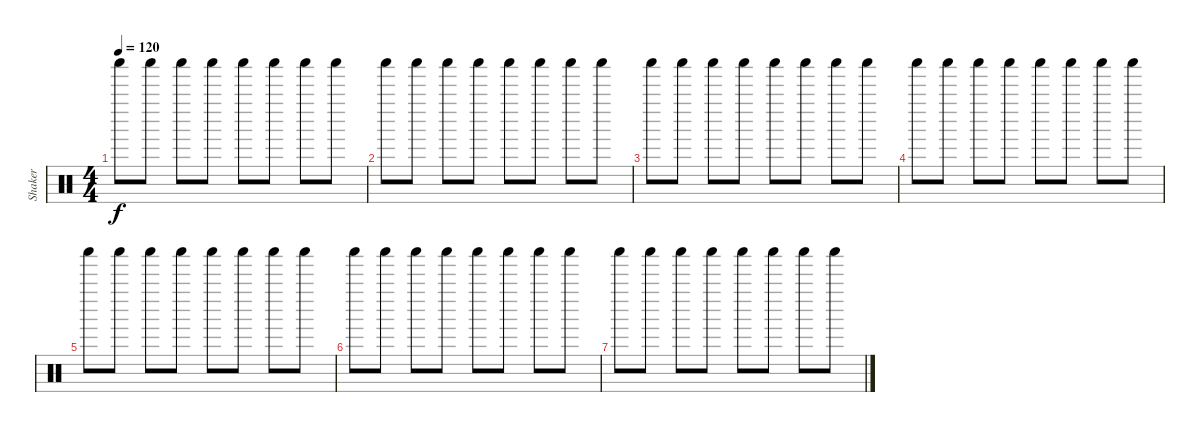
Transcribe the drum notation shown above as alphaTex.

\track ("Shaker" "Shaker") {instrument percussion}
\staff {score}
\articulation defaults
\ts (4 4)
\tempo 120
\clef neutral
\ks c "Shaker (hit)".8{dy f} "Shaker (hit)".8 "Shaker (hit)".8 "Shaker (hit)".8 "Shaker (hit)".8 "Shaker (hit)".8 "Shaker (hit)".8 "Shaker (hit)".8
|
"Shaker (hit)".8 "Shaker (hit)".8 "Shaker (hit)".8 "Shaker (hit)".8 "Shaker (hit)".8 "Shaker (hit)".8 "Shaker (hit)".8 "Shaker (hit)".8 |
"Shaker (hit)".8 "Shaker (hit)".8 "Shaker (hit)".8 "Shaker (hit)".8 "Shaker (hit)".8 "Shaker (hit)".8 "Shaker (hit)".8 "Shaker (hit)".8 |
"Shaker (hit)".8 "Shaker (hit)".8 "Shaker (hit)".8 "Shaker (hit)".8 "Shaker (hit)".8 "Shaker (hit)".8 "Shaker (hit)".8 "Shaker (hit)".8 |
"Shaker (hit)".8 "Shaker (hit)".8 "Shaker (hit)".8 "Shaker (hit)".8 "Shaker (hit)".8 "Shaker (hit)".8 "Shaker (hit)".8 "Shaker (hit)".8 |
"Shaker (hit)".8 "Shaker (hit)".8 "Shaker (hit)".8 "Shaker (hit)".8 "Shaker (hit)".8 "Shaker (hit)".8 "Shaker (hit)".8 "Shaker (hit)".8 |
"Shaker (hit)".8 "Shaker (hit)".8 "Shaker (hit)".8 "Shaker (hit)".8 "Shaker (hit)".8 "Shaker (hit)".8 "Shaker (hit)".8 "Shaker (hit)".8
